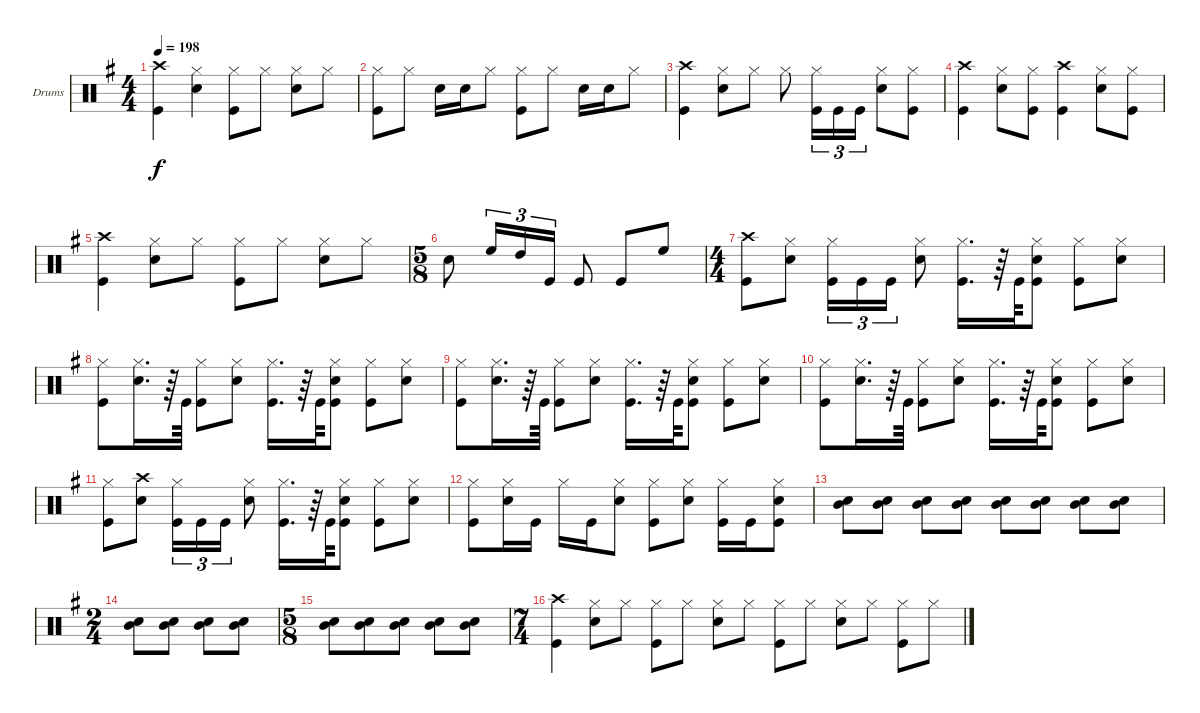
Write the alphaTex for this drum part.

\defaultSystemsLayout 4
\bracketExtendMode groupsimilarinstruments
\firstSystemTrackNameOrientation horizontal
\otherSystemsTrackNameOrientation horizontal
\track ("Drumkit" "Drums") {instrument percussion}
\staff {score}
\articulation defaults
\ts (4 4)
\tempo 198
\clef neutral
\ks g
("Kick (hit)" "Crash high (hit)").4{dy f} ("Hi-Hat (closed)" "Snare (hit) 2").4 ("Hi-Hat (closed)" "Kick (hit)").8 "Hi-Hat (closed)".8 ("Snare (hit) 2" "Hi-Hat (closed)").8 "Hi-Hat (closed)".8 |
("Kick (hit)" "Hi-Hat (closed)").8 "Hi-Hat (closed)".8 "Snare (hit) 2".16 "Snare (hit) 2".16 "Hi-Hat (closed)".8 ("Kick (hit)" "Hi-Hat (closed)").8 "Hi-Hat (closed)".8 "Snare (hit) 2".16 "Snare (hit) 2".16 "Hi-Hat (closed)".8 |
("Kick (hit)" "Crash high (hit)").4 ("Snare (hit) 2" "Hi-Hat (closed)").8 "Hi-Hat (closed)".8 "Hi-Hat (closed)".8 ("Kick (hit)" "Hi-Hat (closed)").16{tu (3 2)} "Kick (hit)".16{tu (3 2)} "Kick (hit)".16{tu (3 2)} ("Snare (hit) 2" "Hi-Hat (closed)").8 ("Kick (hit)" "Hi-Hat (closed)").8 |
("Kick (hit)" "Crash high (hit)").4 ("Hi-Hat (closed)" "Snare (hit) 2").8 ("Kick (hit)" "Hi-Hat (closed)").8 ("Crash high (hit)" "Kick (hit)").4 ("Hi-Hat (closed)" "Snare (hit) 2").8 ("Kick (hit)" "Hi-Hat (closed)").8 |
("Kick (hit)" "Crash high (hit)").4 ("Hi-Hat (closed)" "Snare (hit) 2").8 "Hi-Hat (closed)".8 ("Hi-Hat (closed)" "Kick (hit)").8 "Hi-Hat (closed)".8 ("Snare (hit) 2" "Hi-Hat (closed)").8 "Hi-Hat (closed)".8 |
\ts (5 8)
"Snare (hit) 2".8 "High Floor Tom (hit)".16{tu (3 2)} "High Tom (hit)".16{tu (3 2)} "Kick (hit)".16{tu (3 2)} "Kick (hit)".8 "Kick (hit)".8 "High Floor Tom (hit)".8 |
\ts (4 4)
("Crash high (hit)" "Kick (hit)").8 ("Snare (hit) 2" "Hi-Hat (closed)").8 ("Kick (hit)" "Hi-Hat (closed)").16{tu (3 2)} "Kick (hit)".16{tu (3 2)} "Kick (hit)".16{tu (3 2)} ("Snare (hit) 2" "Hi-Hat (closed)").8 ("Kick (hit)" "Hi-Hat (closed)").16{d} r.64 "Kick (hit)".64 ("Kick (hit)" "Snare (hit) 2" "Hi-Hat (closed)").8 ("Kick (hit)" "Hi-Hat (closed)").8 ("Snare (hit) 2" "Hi-Hat (closed)").8 |
("Kick (hit)" "Hi-Hat (closed)").8 ("Snare (hit) 2" "Hi-Hat (closed)").16{d} r.64 "Kick (hit)".64 ("Kick (hit)" "Hi-Hat (closed)").8 ("Snare (hit) 2" "Hi-Hat (closed)").8 ("Kick (hit)" "Hi-Hat (closed)").16{d} r.64 "Kick (hit)".64 ("Kick (hit)" "Snare (hit) 2" "Hi-Hat (closed)").8 ("Kick (hit)" "Hi-Hat (closed)").8 ("Snare (hit) 2" "Hi-Hat (closed)").8 |
("Kick (hit)" "Hi-Hat (closed)").8 ("Snare (hit) 2" "Hi-Hat (closed)").16{d} r.64 "Kick (hit)".64 ("Kick (hit)" "Hi-Hat (closed)").8 ("Snare (hit) 2" "Hi-Hat (closed)").8 ("Kick (hit)" "Hi-Hat (closed)").16{d} r.64 "Kick (hit)".64 ("Kick (hit)" "Snare (hit) 2" "Hi-Hat (closed)").8 ("Kick (hit)" "Hi-Hat (closed)").8 ("Snare (hit) 2" "Hi-Hat (closed)").8 |
("Kick (hit)" "Hi-Hat (closed)").8 ("Snare (hit) 2" "Hi-Hat (closed)").16{d} r.64 "Kick (hit)".64 ("Kick (hit)" "Hi-Hat (closed)").8 ("Snare (hit) 2" "Hi-Hat (closed)").8 ("Kick (hit)" "Hi-Hat (closed)").16{d} r.64 "Kick (hit)".64 ("Kick (hit)" "Snare (hit) 2" "Hi-Hat (closed)").8 ("Kick (hit)" "Hi-Hat (closed)").8 ("Snare (hit) 2" "Hi-Hat (closed)").8 |
("Hi-Hat (closed)" "Kick (hit)").8 ("Crash high (hit)" "Snare (hit) 2").8 ("Kick (hit)" "Hi-Hat (closed)").16{tu (3 2)} "Kick (hit)".16{tu (3 2)} "Kick (hit)".16{tu (3 2)} ("Snare (hit) 2" "Hi-Hat (closed)").8 ("Kick (hit)" "Hi-Hat (closed)").16{d} r.64 "Kick (hit)".64 ("Kick (hit)" "Snare (hit) 2" "Hi-Hat (closed)").8 ("Kick (hit)" "Hi-Hat (closed)").8 ("Snare (hit) 2" "Hi-Hat (closed)").8 |
("Hi-Hat (closed)" "Kick (hit)").8 ("Snare (hit) 2" "Hi-Hat (closed)").16 "Kick (hit)".16 "Hi-Hat (closed)".16 "Kick (hit)".16 ("Snare (hit) 2" "Hi-Hat (closed)").8 ("Hi-Hat (closed)" "Kick (hit)").8 ("Snare (hit) 2" "Hi-Hat (closed)").8 ("Hi-Hat (closed)" "Kick (hit)").16 "Kick (hit)".16 ("Kick (hit)" "Snare (hit) 2" "Hi-Hat (closed)").8 |
("Snare (hit) 2" "Mid Tom (hit)").8 ("Snare (hit) 2" "Mid Tom (hit)").8 ("Snare (hit) 2" "Mid Tom (hit)").8 ("Snare (hit) 2" "Mid Tom (hit)").8 ("Snare (hit) 2" "Mid Tom (hit)").8 ("Snare (hit) 2" "Mid Tom (hit)").8 ("Snare (hit) 2" "Mid Tom (hit)").8 ("Snare (hit) 2" "Mid Tom (hit)").8 |
\ts (2 4)
("Snare (hit) 2" "Mid Tom (hit)").8 ("Snare (hit) 2" "Mid Tom (hit)").8 ("Snare (hit) 2" "Mid Tom (hit)").8 ("Snare (hit) 2" "Mid Tom (hit)").8 |
\ts (5 8)
("Snare (hit) 2" "Mid Tom (hit)").8 ("Snare (hit) 2" "Mid Tom (hit)").8 ("Snare (hit) 2" "Mid Tom (hit)").8 ("Snare (hit) 2" "Mid Tom (hit)").8 ("Snare (hit) 2" "Mid Tom (hit)").8 |
\ts (7 4)
("Kick (hit)" "Crash high (hit)").4 ("Hi-Hat (closed)" "Snare (hit) 2").8 "Hi-Hat (closed)".8 ("Hi-Hat (closed)" "Kick (hit)").8 "Hi-Hat (closed)".8 ("Snare (hit) 2" "Hi-Hat (closed)").8 "Hi-Hat (closed)".8 ("Hi-Hat (closed)" "Kick (hit)").8 "Hi-Hat (closed)".8 ("Snare (hit) 2" "Hi-Hat (closed)").8 "Hi-Hat (closed)".8 ("Hi-Hat (closed)" "Kick (hit)").8 "Hi-Hat (closed)".8
